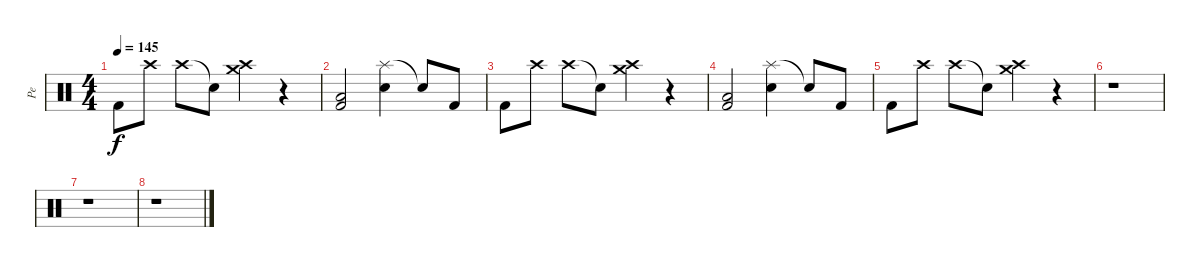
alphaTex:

\track ("Pe" "Pe") {instrument percussion}
\staff {score}
\articulation defaults
\ts (4 4)
\tempo 145
\clef neutral
\ks c "Kick (hit) 2".8{dy f} "Crash high (hit)".8 "Crash high (hit)".8 "Snare (hit)"{t}.8
("Crash high (hit)" "Crash medium (hit)").4 r.4 |
("Kick (hit) 2" "Low Tom (hit)").2 ("Splash (hit)" "Snare (hit) 2").4 "Snare (hit)"{t}.8 "Kick (hit) 2".8 |
"Kick (hit) 2".8 "Crash high (hit)".8 "Crash high (hit)".8 "Snare (hit)"{t}.8 ("Crash high (hit)" "Crash medium (hit)").4 r.4 |
("Kick (hit) 2" "Low Tom (hit)").2 ("Splash (hit)" "Snare (hit) 2").4 "Snare (hit)"{t}.8 "Kick (hit) 2".8 |
"Kick (hit) 2".8 "Crash high (hit)".8 "Crash high (hit)".8 "Snare (hit)"{t}.8 ("Crash high (hit)" "Crash medium (hit)").4 r.4 |
r.1 |
r.1 |
r.1
